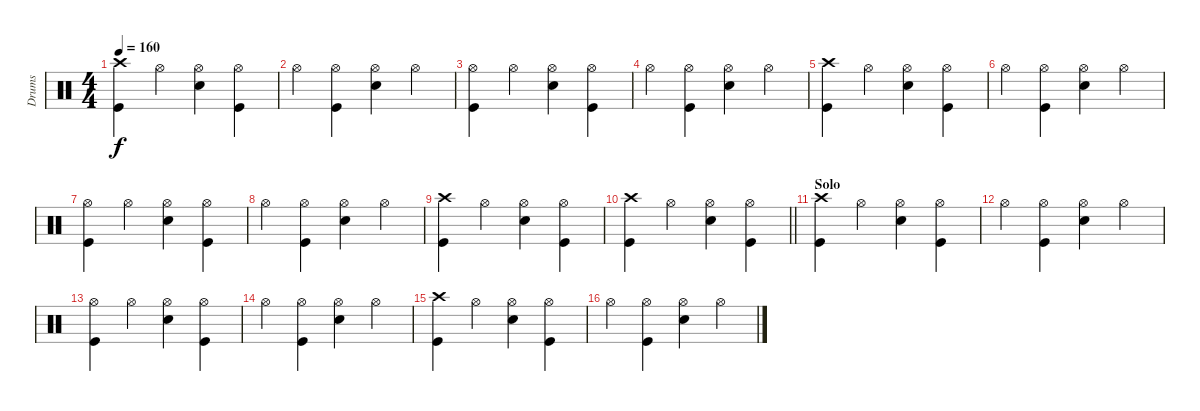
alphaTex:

\track ("Drums" "Drums") {instrument percussion}
\staff {score}
\articulation defaults
\ts (4 4)
\tempo 160
\clef neutral
\ks c
("Kick (hit)" "Crash high (hit)").4{dy f} "Hi-Hat (open)".4 ("Snare (hit) 2" "Hi-Hat (open)").4 ("Kick (hit)" "Hi-Hat (open)").4 |
"Hi-Hat (open)".4 ("Hi-Hat (open)" "Kick (hit)").4 ("Snare (hit) 2" "Hi-Hat (open)").4 "Hi-Hat (open)".4 |
("Kick (hit)" "Hi-Hat (open)").4 "Hi-Hat (open)".4 ("Snare (hit) 2" "Hi-Hat (open)").4 ("Kick (hit)" "Hi-Hat (open)").4 |
"Hi-Hat (open)".4 ("Kick (hit)" "Hi-Hat (open)").4 ("Snare (hit) 2" "Hi-Hat (open)").4 "Hi-Hat (open)".4 |
("Kick (hit)" "Crash high (hit)").4 "Hi-Hat (open)".4 ("Snare (hit) 2" "Hi-Hat (open)").4 ("Kick (hit)" "Hi-Hat (open)").4 |
"Hi-Hat (open)".4 ("Hi-Hat (open)" "Kick (hit)").4 ("Snare (hit) 2" "Hi-Hat (open)").4 "Hi-Hat (open)".4 |
("Kick (hit)" "Hi-Hat (open)").4 "Hi-Hat (open)".4 ("Snare (hit) 2" "Hi-Hat (open)").4 ("Kick (hit)" "Hi-Hat (open)").4 |
"Hi-Hat (open)".4 ("Kick (hit)" "Hi-Hat (open)").4 ("Snare (hit) 2" "Hi-Hat (open)").4 "Hi-Hat (open)".4 |
("Kick (hit)" "Crash high (hit)").4 "Hi-Hat (open)".4 ("Snare (hit) 2" "Hi-Hat (open)").4 ("Kick (hit)" "Hi-Hat (open)").4 |
\barLineRight lightlight
("Crash high (hit)" "Kick (hit)").4 "Hi-Hat (open)".4 ("Snare (hit) 2" "Hi-Hat (open)").4 ("Hi-Hat (open)" "Kick (hit)").4 |
\section ("" "Solo")
("Kick (hit)" "Crash high (hit)").4 "Hi-Hat (open)".4 ("Snare (hit) 2" "Hi-Hat (open)").4 ("Kick (hit)" "Hi-Hat (open)").4 |
"Hi-Hat (open)".4 ("Hi-Hat (open)" "Kick (hit)").4 ("Snare (hit) 2" "Hi-Hat (open)").4 "Hi-Hat (open)".4 |
("Kick (hit)" "Hi-Hat (open)").4 "Hi-Hat (open)".4 ("Snare (hit) 2" "Hi-Hat (open)").4 ("Kick (hit)" "Hi-Hat (open)").4 |
"Hi-Hat (open)".4 ("Kick (hit)" "Hi-Hat (open)").4 ("Snare (hit) 2" "Hi-Hat (open)").4 "Hi-Hat (open)".4 |
("Kick (hit)" "Crash high (hit)").4 "Hi-Hat (open)".4 ("Snare (hit) 2" "Hi-Hat (open)").4 ("Kick (hit)" "Hi-Hat (open)").4 |
"Hi-Hat (open)".4 ("Hi-Hat (open)" "Kick (hit)").4 ("Snare (hit) 2" "Hi-Hat (open)").4 "Hi-Hat (open)".4
